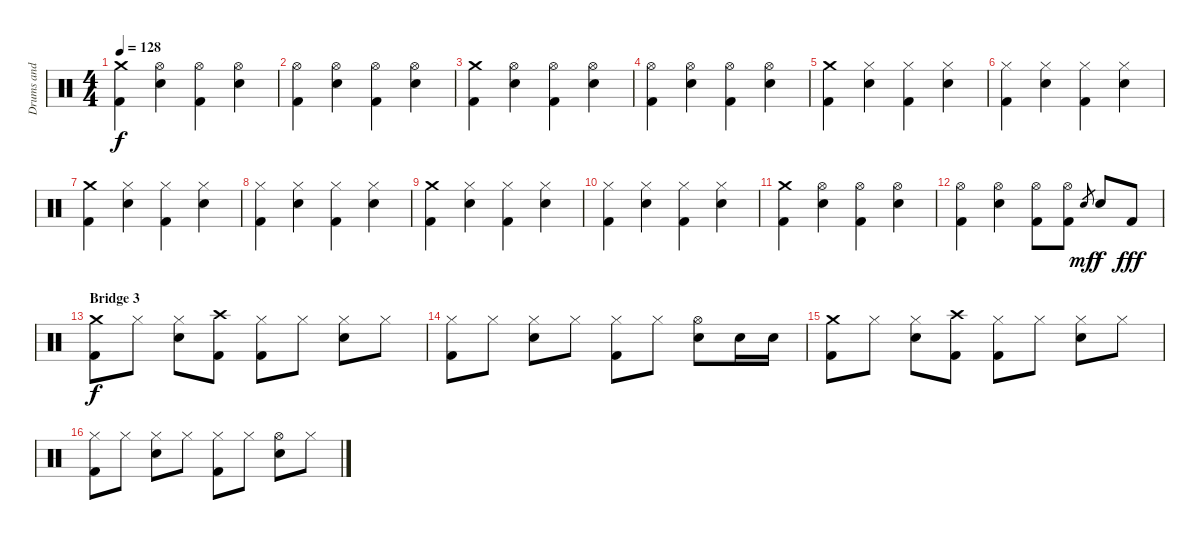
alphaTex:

\track ("Drums and Percussion" "Drums and ") {instrument percussion}
\staff {score}
\articulation defaults
\ts (4 4)
\tempo 128
\clef neutral
\ks c
("Crash medium (hit)" "Kick (hit) 2").4{dy f} ("Hi-Hat (open)" "Snare (hit) 2").4 ("Hi-Hat (open)" "Kick (hit) 2").4 ("Hi-Hat (open)" "Snare (hit) 2").4 |
("Hi-Hat (open)" "Kick (hit) 2").4 ("Hi-Hat (open)" "Snare (hit) 2").4 ("Hi-Hat (open)" "Kick (hit) 2").4 ("Hi-Hat (open)" "Snare (hit) 2").4 |
("Crash medium (hit)" "Kick (hit) 2").4 ("Hi-Hat (open)" "Snare (hit) 2").4 ("Hi-Hat (open)" "Kick (hit) 2").4 ("Hi-Hat (open)" "Snare (hit) 2").4 |
("Hi-Hat (open)" "Kick (hit) 2").4 ("Hi-Hat (open)" "Snare (hit) 2").4 ("Hi-Hat (open)" "Kick (hit) 2").4 ("Hi-Hat (open)" "Snare (hit) 2").4 |
("Crash medium (hit)" "Kick (hit) 2").4 ("Hi-Hat (closed)" "Snare (hit) 2").4 ("Hi-Hat (closed)" "Kick (hit) 2").4 ("Hi-Hat (closed)" "Snare (hit) 2").4 |
("Hi-Hat (closed)" "Kick (hit) 2").4 ("Hi-Hat (closed)" "Snare (hit) 2").4 ("Hi-Hat (closed)" "Kick (hit) 2").4 ("Hi-Hat (closed)" "Snare (hit) 2").4 |
("Crash medium (hit)" "Kick (hit) 2").4 ("Hi-Hat (closed)" "Snare (hit) 2").4 ("Hi-Hat (closed)" "Kick (hit) 2").4 ("Hi-Hat (closed)" "Snare (hit) 2").4 |
("Hi-Hat (closed)" "Kick (hit) 2").4 ("Hi-Hat (closed)" "Snare (hit) 2").4 ("Hi-Hat (closed)" "Kick (hit) 2").4 ("Hi-Hat (closed)" "Snare (hit) 2").4 |
("Crash medium (hit)" "Kick (hit) 2").4 ("Hi-Hat (closed)" "Snare (hit) 2").4 ("Hi-Hat (closed)" "Kick (hit) 2").4 ("Hi-Hat (closed)" "Snare (hit) 2").4 |
("Hi-Hat (closed)" "Kick (hit) 2").4 ("Hi-Hat (closed)" "Snare (hit) 2").4 ("Hi-Hat (closed)" "Kick (hit) 2").4 ("Hi-Hat (closed)" "Snare (hit) 2").4 |
("Crash medium (hit)" "Kick (hit) 2").4 ("Hi-Hat (open)" "Snare (hit) 2").4 ("Hi-Hat (open)" "Kick (hit) 2").4 ("Hi-Hat (open)" "Snare (hit) 2").4 |
("Hi-Hat (open)" "Kick (hit) 2").4 ("Hi-Hat (open)" "Snare (hit) 2").4 ("Hi-Hat (open)" "Kick (hit) 2").8 ("Hi-Hat (open)" "Kick (hit) 2").8 "Snare (hit)".8{gr dy mf} "Snare (hit) 2".8{dy f} "Kick (hit) 2".8{dy fff} |
\section ("" "Bridge 3")
("Crash medium (hit)" "Kick (hit) 2").8{dy f} "Hi-Hat (closed)".8 ("Hi-Hat (closed)" "Snare (hit) 2").8 ("Crash high (hit)" "Kick (hit) 2").8 ("Hi-Hat (closed)" "Kick (hit) 2").8 "Hi-Hat (closed)".8 ("Hi-Hat (closed)" "Snare (hit) 2").8 "Hi-Hat (closed)".8 |
("Hi-Hat (closed)" "Kick (hit) 2").8 "Hi-Hat (closed)".8 ("Hi-Hat (closed)" "Snare (hit) 2").8 "Hi-Hat (closed)".8 ("Hi-Hat (closed)" "Kick (hit) 2").8 "Hi-Hat (closed)".8 ("Hi-Hat (open)" "Snare (hit) 2").8 "Snare (hit) 2".16 "Snare (hit) 2".16 |
("Crash medium (hit)" "Kick (hit) 2").8 "Hi-Hat (closed)".8 ("Hi-Hat (closed)" "Snare (hit) 2").8 ("Crash high (hit)" "Kick (hit) 2").8 ("Hi-Hat (closed)" "Kick (hit) 2").8 "Hi-Hat (closed)".8 ("Hi-Hat (closed)" "Snare (hit) 2").8 "Hi-Hat (closed)".8 |
("Hi-Hat (closed)" "Kick (hit) 2").8 "Hi-Hat (closed)".8 ("Hi-Hat (closed)" "Snare (hit) 2").8 "Hi-Hat (closed)".8 ("Hi-Hat (closed)" "Kick (hit) 2").8 "Hi-Hat (closed)".8 ("Hi-Hat (open)" "Snare (hit) 2").8 "Hi-Hat (closed)".8
